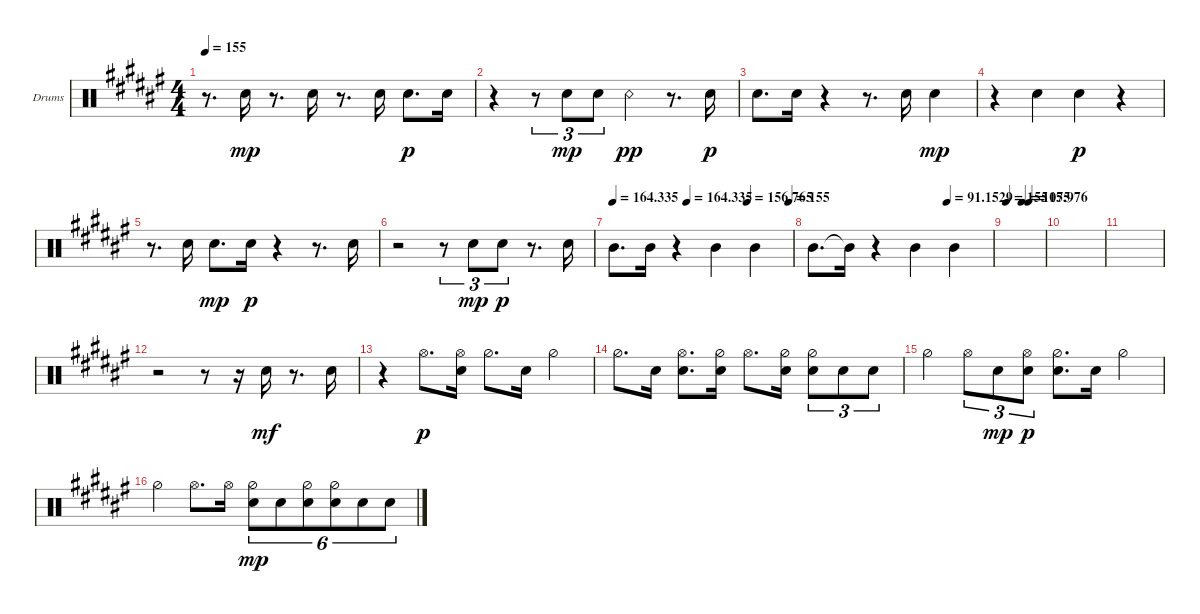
\bracketExtendMode groupsimilarinstruments
\firstSystemTrackNameOrientation horizontal
\otherSystemsTrackNameOrientation horizontal
\track ("Drums" "Drums") {instrument percussion}
\staff {score}
\articulation defaults
\ts (4 4)
\tempo 155
\clef neutral
\ks f#
r.8{d dy mp} "Snare (hit) 2".16 r.8{d} "Snare (hit) 2".16 r.8{d} "Snare (hit) 2".16 "Snare (hit) 2".8{d dy p} "Snare (hit) 2".16 |
r.4 r.8{tu (3 2)} "Snare (hit) 2".8{tu (3 2) dy mp} "Snare (hit) 2".8{tu (3 2)} "Snare (rim shot)".4{dy pp} r.8{d} "Snare (hit) 2".16{dy p} |
"Snare (hit) 2".8{d} "Snare (hit) 2".16 r.4 r.8{d} "Snare (hit) 2".16 "Snare (hit) 2".4{dy mp} |
r.4 "Snare (hit) 2".4 "Snare (hit) 2".4{dy p} r.4 |
r.8{d} "Snare (hit) 2".16 "Snare (hit) 2".8{d dy mp} "Snare (hit) 2".16{dy p} r.4 r.8{d} "Snare (hit) 2".16 |
r.2 r.8{tu (3 2)} "Snare (hit) 2".8{tu (3 2) dy mp} "Snare (hit) 2".8{tu (3 2) dy p} r.8{d} "Snare (hit) 2".16 |
\tempo
164.335
\tempo (164.335 0.4125)
\tempo (156.765 0.75)
\tempo (155 0.98125)
"Mid Tom (hit)".8{d} "Mid Tom (hit)".16 r.4 "Mid Tom (hit)".4 "Mid Tom (hit)".4 |
\tempo (91.1529 0.75)
"Mid Tom (hit)".8{d} "Mid Tom (hit)"{t}.16 r.4 "Mid Tom (hit)".4 "Mid Tom (hit)".4 |
\tempo (155 0.01875)
\tempo (107.976 0.41875)
\tempo (155 0.59375)
|
|
|
r.2 r.8 r.16 "Snare (hit) 2".16{dy mf} r.8{d} "Snare (hit) 2".16 |
r.4 "Hi-Hat (open)".8{d dy p} ("Snare (hit) 2" "Hi-Hat (open)").16 "Hi-Hat (half)".8{d} "Snare (hit) 2".16 "Hi-Hat (half)".4 |
"Hi-Hat (half)".8{d} "Snare (hit) 2".16 ("Snare (hit) 2" "Hi-Hat (open)").8{d} ("Snare (hit) 2" "Hi-Hat (half)").16 "Hi-Hat (open)".8{d} ("Snare (hit) 2" "Hi-Hat (half)").16 ("Snare (hit) 2" "Hi-Hat (half)").8{tu (3 2)} "Snare (hit) 2".8{tu (3 2)} "Snare (hit) 2".8{tu (3 2)} |
"Hi-Hat (half)".4 "Hi-Hat (open)".8{tu (3 2)} "Snare (hit) 2".8{tu (3 2) dy mp} ("Snare (hit) 2" "Hi-Hat (open)").8{tu (3 2) dy p} ("Hi-Hat (half)" "Snare (hit) 2").8{d} "Snare (hit) 2".16 "Hi-Hat (half)".4 |
\scale
0.437063 "Hi-Hat (half)".4 "Hi-Hat (open)".8{d} "Hi-Hat (open)".16 ("Snare (hit) 2" "Hi-Hat (half)").8{tu (6 4) dy mp} "Snare (hit) 2".8{tu (6 4)} ("Snare (hit) 2" "Hi-Hat (half)").8{tu (6 4)} ("Snare (hit) 2" "Hi-Hat (half)").8{tu (6 4)} "Snare (hit) 2".8{tu (6 4)} "Snare (hit) 2".8{tu (6 4)}
